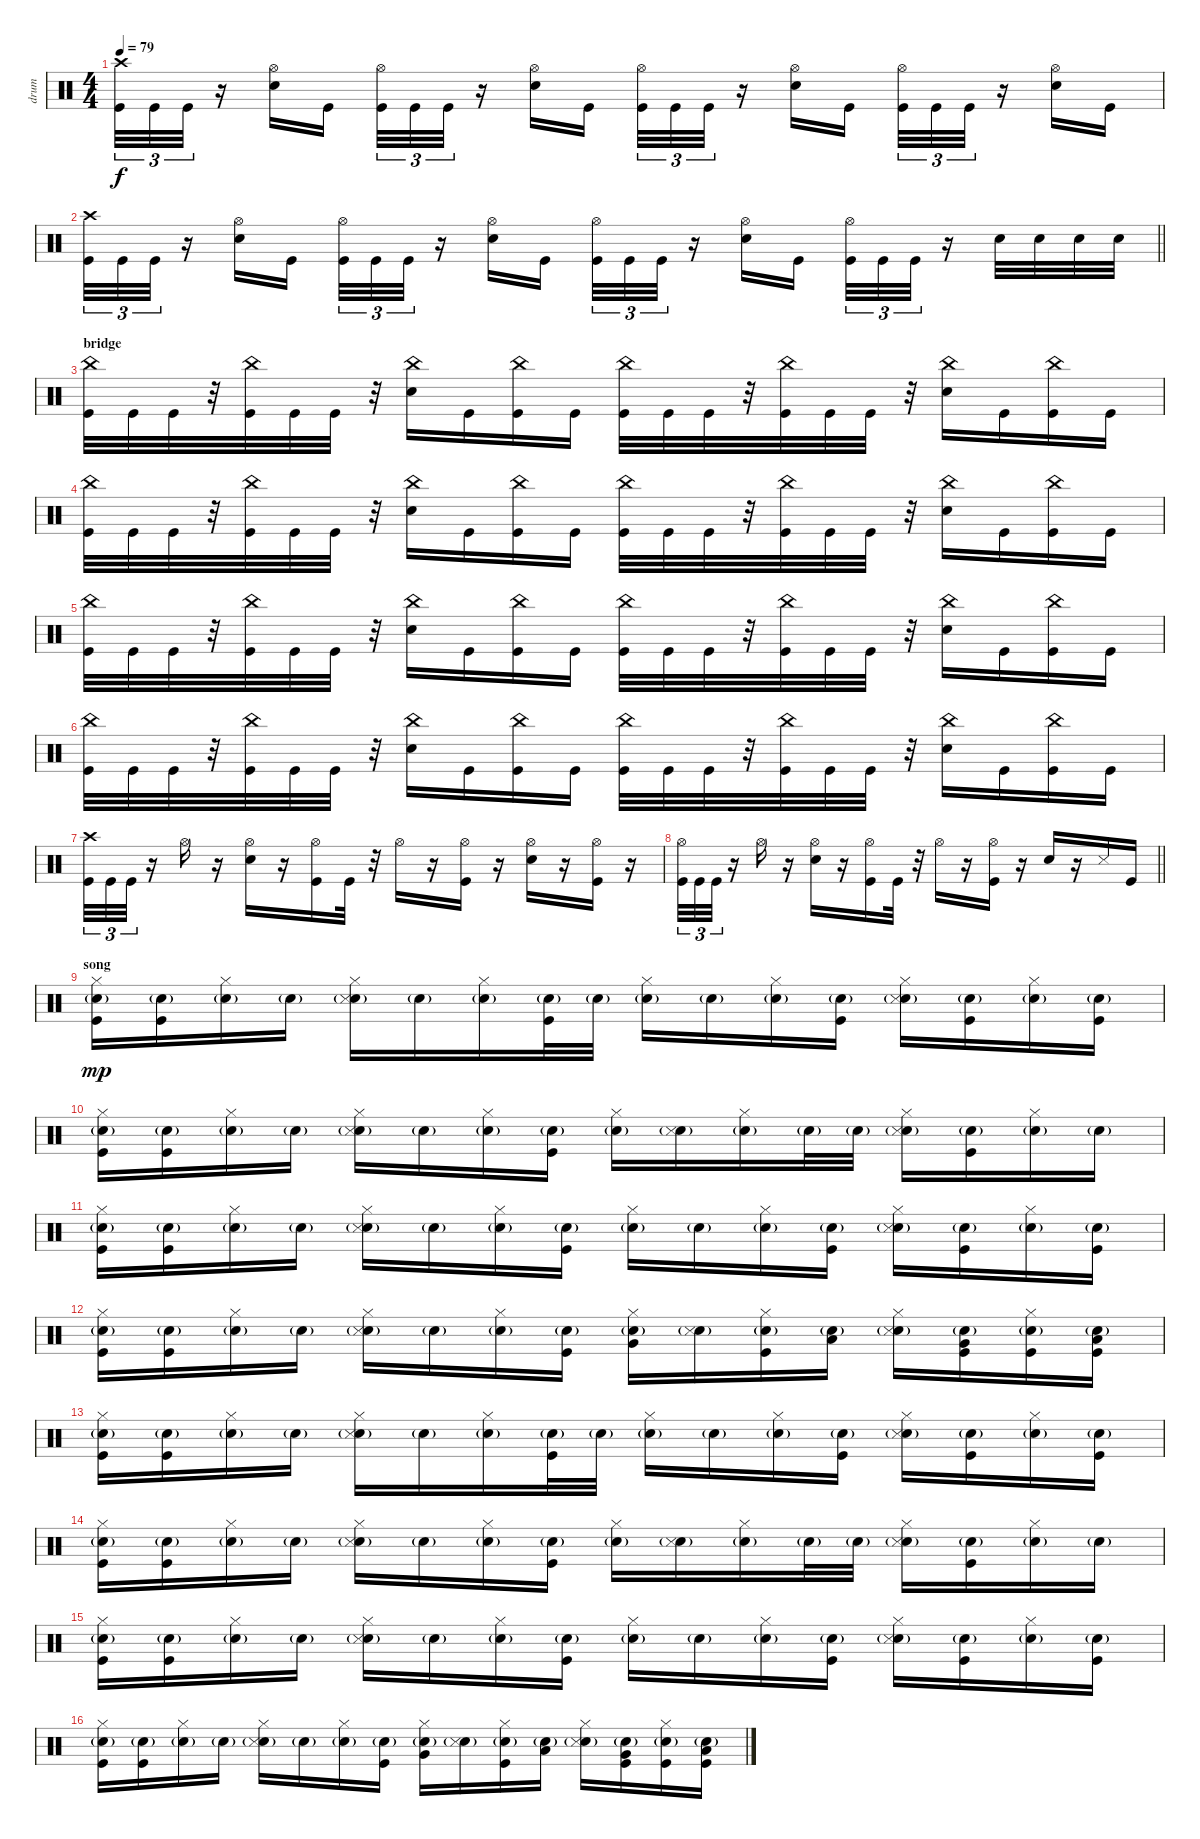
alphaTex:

\track ("drum" "drum") {instrument percussion}
\staff {score}
\articulation defaults
\ts (4 4)
\tempo 79
\clef neutral
\ks c
("Crash high (hit)" "Kick (hit)").32{tu (3 2) dy f} "Kick (hit)".32{tu (3 2)} "Kick (hit)".32{tu (3 2)} r.16 ("Hi-Hat (open)" "Snare (hit) 2").16 "Kick (hit)".16 ("Hi-Hat (open)" "Kick (hit)").32{tu (3 2)} "Kick (hit)".32{tu (3 2)} "Kick (hit)".32{tu (3 2)} r.16 ("Hi-Hat (open)" "Snare (hit) 2").16 "Kick (hit)".16 ("Hi-Hat (open)" "Kick (hit)").32{tu (3 2)} "Kick (hit)".32{tu (3 2)} "Kick (hit)".32{tu (3 2)} r.16 ("Hi-Hat (open)" "Snare (hit) 2").16 "Kick (hit)".16 ("Hi-Hat (open)" "Kick (hit)").32{tu (3 2)} "Kick (hit)".32{tu (3 2)} "Kick (hit)".32{tu (3 2)} r.16 ("Hi-Hat (open)" "Snare (hit) 2").16 "Kick (hit)".16 |
\barLineRight lightlight
("Crash high (hit)" "Kick (hit)").32{tu (3 2)} "Kick (hit)".32{tu (3 2)} "Kick (hit)".32{tu (3 2)} r.16 ("Hi-Hat (open)" "Snare (hit) 2").16 "Kick (hit)".16 ("Hi-Hat (open)" "Kick (hit)").32{tu (3 2)} "Kick (hit)".32{tu (3 2)} "Kick (hit)".32{tu (3 2)} r.16 ("Hi-Hat (open)" "Snare (hit) 2").16 "Kick (hit)".16 ("Hi-Hat (open)" "Kick (hit)").32{tu (3 2)} "Kick (hit)".32{tu (3 2)} "Kick (hit)".32{tu (3 2)} r.16 ("Hi-Hat (open)" "Snare (hit) 2").16 "Kick (hit)".16 ("Hi-Hat (open)" "Kick (hit)").32{tu (3 2)} "Kick (hit)".32{tu (3 2)} "Kick (hit)".32{tu (3 2)} r.16 "Snare (hit) 2".32 "Snare (hit) 2".32 "Snare (hit) 2".32 "Snare (hit) 2".32 |
\section ("" "bridge")
("China (hit)" "Kick (hit)").32 "Kick (hit)".32 "Kick (hit)".32 r.32 ("China (hit)" "Kick (hit)").32 "Kick (hit)".32 "Kick (hit)".32 r.32 ("China (hit)" "Snare (hit) 2").16 "Kick (hit)".16 ("China (hit)" "Kick (hit)").16 "Kick (hit)".16 ("China (hit)" "Kick (hit)").32 "Kick (hit)".32 "Kick (hit)".32 r.32 ("China (hit)" "Kick (hit)").32 "Kick (hit)".32 "Kick (hit)".32 r.32 ("China (hit)" "Snare (hit) 2").16 "Kick (hit)".16 ("China (hit)" "Kick (hit)").16 "Kick (hit)".16 |
("China (hit)" "Kick (hit)").32 "Kick (hit)".32 "Kick (hit)".32 r.32 ("China (hit)" "Kick (hit)").32 "Kick (hit)".32 "Kick (hit)".32 r.32 ("China (hit)" "Snare (hit) 2").16 "Kick (hit)".16 ("China (hit)" "Kick (hit)").16 "Kick (hit)".16 ("China (hit)" "Kick (hit)").32 "Kick (hit)".32 "Kick (hit)".32 r.32 ("China (hit)" "Kick (hit)").32 "Kick (hit)".32 "Kick (hit)".32 r.32 ("China (hit)" "Snare (hit) 2").16 "Kick (hit)".16 ("China (hit)" "Kick (hit)").16 "Kick (hit)".16 |
("China (hit)" "Kick (hit)").32 "Kick (hit)".32 "Kick (hit)".32 r.32 ("China (hit)" "Kick (hit)").32 "Kick (hit)".32 "Kick (hit)".32 r.32 ("China (hit)" "Snare (hit) 2").16 "Kick (hit)".16 ("China (hit)" "Kick (hit)").16 "Kick (hit)".16 ("China (hit)" "Kick (hit)").32 "Kick (hit)".32 "Kick (hit)".32 r.32 ("China (hit)" "Kick (hit)").32 "Kick (hit)".32 "Kick (hit)".32 r.32 ("China (hit)" "Snare (hit) 2").16 "Kick (hit)".16 ("China (hit)" "Kick (hit)").16 "Kick (hit)".16 |
("China (hit)" "Kick (hit)").32 "Kick (hit)".32 "Kick (hit)".32 r.32 ("China (hit)" "Kick (hit)").32 "Kick (hit)".32 "Kick (hit)".32 r.32 ("China (hit)" "Snare (hit) 2").16 "Kick (hit)".16 ("China (hit)" "Kick (hit)").16 "Kick (hit)".16 ("China (hit)" "Kick (hit)").32 "Kick (hit)".32 "Kick (hit)".32 r.32 ("China (hit)" "Kick (hit)").32 "Kick (hit)".32 "Kick (hit)".32 r.32 ("China (hit)" "Snare (hit) 2").16 "Kick (hit)".16 ("China (hit)" "Kick (hit)").16 "Kick (hit)".16 |
("Crash high (hit)" "Kick (hit)").32{tu (3 2)} "Kick (hit)".32{tu (3 2)} "Kick (hit)".32{tu (3 2)} r.16 "Hi-Hat (open)".16 r.16 ("Hi-Hat (open)" "Snare (hit) 2").16 r.16 ("Hi-Hat (open)" "Kick (hit)").16 "Kick (hit)".32 r.32 "Hi-Hat (open)".16 r.16 ("Hi-Hat (open)" "Kick (hit)").16 r.16 ("Hi-Hat (open)" "Snare (hit) 2").16 r.16 ("Hi-Hat (open)" "Kick (hit)").16 r.16 |
\barLineRight lightlight
("Hi-Hat (open)" "Kick (hit)").32{tu (3 2)} "Kick (hit)".32{tu (3 2)} "Kick (hit)".32{tu (3 2)} r.16 "Hi-Hat (open)".16 r.16 ("Hi-Hat (open)" "Snare (hit) 2").16 r.16 ("Hi-Hat (open)" "Kick (hit)").16 "Kick (hit)".32 r.32 "Hi-Hat (open)".16 r.16 ("Hi-Hat (open)" "Kick (hit)").16 r.16 "Snare (hit) 2".16 r.16 "Snare (side stick) 3".16 "Kick (hit)".16 |
\section ("" "song")
("Snare (hit) 2"{g} "Hi-Hat (closed)" "Kick (hit)").16{dy mp} ("Snare (hit) 2"{g} "Kick (hit)").16 ("Snare (hit) 2"{g} "Hi-Hat (closed)").16 "Snare (hit) 2"{g}.16 ("Snare (hit) 2"{g} "Hi-Hat (closed)" "Snare (side stick) 3").16 "Snare (hit) 2"{g}.16 ("Snare (hit) 2"{g} "Hi-Hat (closed)").16 ("Snare (hit) 2"{g} "Kick (hit)").32 "Snare (hit) 2"{g}.32 ("Snare (hit) 2"{g} "Hi-Hat (closed)").16 "Snare (hit) 2"{g}.16 ("Snare (hit) 2"{g} "Hi-Hat (closed)").16 ("Snare (hit) 2"{g} "Kick (hit)").16 ("Snare (hit) 2"{g} "Hi-Hat (closed)" "Snare (side stick) 3").16 ("Snare (hit) 2"{g} "Kick (hit)").16 ("Snare (hit) 2"{g} "Hi-Hat (closed)").16 ("Snare (hit) 2"{g} "Kick (hit)").16 |
("Snare (hit) 2"{g} "Hi-Hat (closed)" "Kick (hit)").16 ("Snare (hit) 2"{g} "Kick (hit)").16 ("Snare (hit) 2"{g} "Hi-Hat (closed)").16 "Snare (hit) 2"{g}.16 ("Snare (hit) 2"{g} "Hi-Hat (closed)" "Snare (side stick) 3").16 "Snare (hit) 2"{g}.16 ("Snare (hit) 2"{g} "Hi-Hat (closed)").16 ("Snare (hit) 2"{g} "Kick (hit)").16 ("Snare (hit) 2"{g} "Hi-Hat (closed)").16 ("Snare (hit) 2"{g} "Snare (side stick) 3").16 ("Snare (hit) 2"{g} "Hi-Hat (closed)").16 "Snare (hit) 2"{g}.32 "Snare (hit) 2"{g}.32 ("Snare (hit) 2"{g} "Hi-Hat (closed)" "Snare (side stick) 3").16 ("Snare (hit) 2"{g} "Kick (hit)").16 ("Snare (hit) 2"{g} "Hi-Hat (closed)").16 "Snare (hit) 2"{g}.16 |
("Snare (hit) 2"{g} "Hi-Hat (closed)" "Kick (hit)").16 ("Snare (hit) 2"{g} "Kick (hit)").16 ("Snare (hit) 2"{g} "Hi-Hat (closed)").16 "Snare (hit) 2"{g}.16 ("Snare (hit) 2"{g} "Hi-Hat (closed)" "Snare (side stick) 3").16 "Snare (hit) 2"{g}.16 ("Snare (hit) 2"{g} "Hi-Hat (closed)").16 ("Snare (hit) 2"{g} "Kick (hit)").16 ("Snare (hit) 2"{g} "Hi-Hat (closed)").16 "Snare (hit) 2"{g}.16 ("Snare (hit) 2"{g} "Hi-Hat (closed)").16 ("Snare (hit) 2"{g} "Kick (hit)").16 ("Snare (hit) 2"{g} "Hi-Hat (closed)" "Snare (side stick) 3").16 ("Snare (hit) 2"{g} "Kick (hit)").16 ("Snare (hit) 2"{g} "Hi-Hat (closed)").16 ("Snare (hit) 2"{g} "Kick (hit)").16 |
("Snare (hit) 2"{g} "Hi-Hat (closed)" "Kick (hit)").16 ("Snare (hit) 2"{g} "Kick (hit)").16 ("Snare (hit) 2"{g} "Hi-Hat (closed)").16 "Snare (hit) 2"{g}.16 ("Snare (hit) 2"{g} "Hi-Hat (closed)" "Snare (side stick) 3").16 "Snare (hit) 2"{g}.16 ("Snare (hit) 2"{g} "Hi-Hat (closed)").16 ("Snare (hit) 2"{g} "Kick (hit)").16 ("Snare (hit) 2"{g} "Very Low Tom (hit)" "Hi-Hat (closed)").16 ("Snare (hit) 2"{g} "Snare (side stick) 3").16 ("Snare (hit) 2"{g} "Hi-Hat (closed)" "Kick (hit)").16 ("Snare (hit) 2"{g} "Low Tom (hit)").16 ("Snare (hit) 2"{g} "Hi-Hat (closed)" "Snare (side stick) 3").16 ("Snare (hit) 2"{g} "Very Low Tom (hit)" "Kick (hit)").16 ("Snare (hit) 2"{g} "Hi-Hat (closed)" "Kick (hit)").16 ("Snare (hit) 2"{g} "Low Floor Tom (hit)" "Kick (hit)").16 |
("Snare (hit) 2"{g} "Hi-Hat (closed)" "Kick (hit)").16 ("Snare (hit) 2"{g} "Kick (hit)").16 ("Snare (hit) 2"{g} "Hi-Hat (closed)").16 "Snare (hit) 2"{g}.16 ("Snare (hit) 2"{g} "Hi-Hat (closed)" "Snare (side stick) 3").16 "Snare (hit) 2"{g}.16 ("Snare (hit) 2"{g} "Hi-Hat (closed)").16 ("Snare (hit) 2"{g} "Kick (hit)").32 "Snare (hit) 2"{g}.32 ("Snare (hit) 2"{g} "Hi-Hat (closed)").16 "Snare (hit) 2"{g}.16 ("Snare (hit) 2"{g} "Hi-Hat (closed)").16 ("Snare (hit) 2"{g} "Kick (hit)").16 ("Snare (hit) 2"{g} "Hi-Hat (closed)" "Snare (side stick) 3").16 ("Snare (hit) 2"{g} "Kick (hit)").16 ("Snare (hit) 2"{g} "Hi-Hat (closed)").16 ("Snare (hit) 2"{g} "Kick (hit)").16 |
("Snare (hit) 2"{g} "Hi-Hat (closed)" "Kick (hit)").16 ("Snare (hit) 2"{g} "Kick (hit)").16 ("Snare (hit) 2"{g} "Hi-Hat (closed)").16 "Snare (hit) 2"{g}.16 ("Snare (hit) 2"{g} "Hi-Hat (closed)" "Snare (side stick) 3").16 "Snare (hit) 2"{g}.16 ("Snare (hit) 2"{g} "Hi-Hat (closed)").16 ("Snare (hit) 2"{g} "Kick (hit)").16 ("Snare (hit) 2"{g} "Hi-Hat (closed)").16 ("Snare (hit) 2"{g} "Snare (side stick) 3").16 ("Snare (hit) 2"{g} "Hi-Hat (closed)").16 "Snare (hit) 2"{g}.32 "Snare (hit) 2"{g}.32 ("Snare (hit) 2"{g} "Hi-Hat (closed)" "Snare (side stick) 3").16 ("Snare (hit) 2"{g} "Kick (hit)").16 ("Snare (hit) 2"{g} "Hi-Hat (closed)").16 "Snare (hit) 2"{g}.16 |
("Snare (hit) 2"{g} "Hi-Hat (closed)" "Kick (hit)").16 ("Snare (hit) 2"{g} "Kick (hit)").16 ("Snare (hit) 2"{g} "Hi-Hat (closed)").16 "Snare (hit) 2"{g}.16 ("Snare (hit) 2"{g} "Hi-Hat (closed)" "Snare (side stick) 3").16 "Snare (hit) 2"{g}.16 ("Snare (hit) 2"{g} "Hi-Hat (closed)").16 ("Snare (hit) 2"{g} "Kick (hit)").16 ("Snare (hit) 2"{g} "Hi-Hat (closed)").16 "Snare (hit) 2"{g}.16 ("Snare (hit) 2"{g} "Hi-Hat (closed)").16 ("Snare (hit) 2"{g} "Kick (hit)").16 ("Snare (hit) 2"{g} "Hi-Hat (closed)" "Snare (side stick) 3").16 ("Snare (hit) 2"{g} "Kick (hit)").16 ("Snare (hit) 2"{g} "Hi-Hat (closed)").16 ("Snare (hit) 2"{g} "Kick (hit)").16 |
("Snare (hit) 2"{g} "Hi-Hat (closed)" "Kick (hit)").16 ("Snare (hit) 2"{g} "Kick (hit)").16 ("Snare (hit) 2"{g} "Hi-Hat (closed)").16 "Snare (hit) 2"{g}.16 ("Snare (hit) 2"{g} "Hi-Hat (closed)" "Snare (side stick) 3").16 "Snare (hit) 2"{g}.16 ("Snare (hit) 2"{g} "Hi-Hat (closed)").16 ("Snare (hit) 2"{g} "Kick (hit)").16 ("Snare (hit) 2"{g} "Very Low Tom (hit)" "Hi-Hat (closed)").16 ("Snare (hit) 2"{g} "Snare (side stick) 3").16 ("Snare (hit) 2"{g} "Hi-Hat (closed)" "Kick (hit)").16 ("Snare (hit) 2"{g} "Low Tom (hit)").16 ("Snare (hit) 2"{g} "Hi-Hat (closed)" "Snare (side stick) 3").16 ("Snare (hit) 2"{g} "Very Low Tom (hit)" "Kick (hit)").16 ("Snare (hit) 2"{g} "Hi-Hat (closed)" "Kick (hit)").16 ("Snare (hit) 2"{g} "Low Floor Tom (hit)" "Kick (hit)").16
